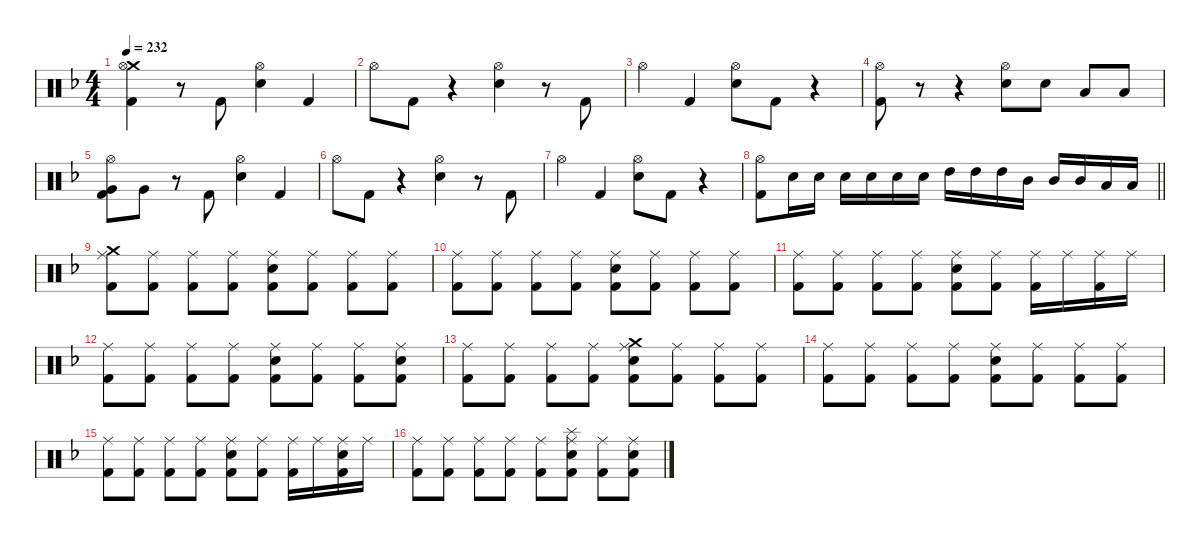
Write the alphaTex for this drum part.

\hideDynamics
\bracketExtendMode nobrackets
\singleTrackTrackNamePolicy hidden
\multiTrackTrackNamePolicy hidden
\firstSystemTrackNameMode fullname
\firstSystemTrackNameOrientation horizontal
\otherSystemsTrackNameOrientation horizontal
\track ("Drumkit" "Drums") {defaultSystemsLayout 4 instrument percussion}
\staff {score}
\articulation defaults
\ts (4 4)
\tempo 232
\clef neutral
\ks dminor
("Crash medium (hit)"{acc forcenatural} "Hi-Hat (open)"{acc forcenatural} "Kick (hit) 2"{acc forcenatural}).4{dy f beam Down} r.8{beam Down} "Kick (hit) 2"{acc forcenatural}.8{beam Up} ("Hi-Hat (open)"{acc forcenatural} "Snare (hit) 2"{acc forcenatural}).4{beam Down} "Kick (hit) 2"{acc forcenatural}.4{beam Up} |
"Hi-Hat (open)"{acc forcenatural}.8{beam Down} "Kick (hit) 2"{acc forcenatural}.8{beam Down} r.4{beam Down} ("Hi-Hat (open)"{acc forcenatural} "Snare (hit) 2"{acc forcenatural}).4{beam Down} r.8{beam Down} "Kick (hit) 2"{acc forcenatural}.8{beam Up} |
"Hi-Hat (open)"{acc forcenatural}.4{beam Down} "Kick (hit) 2"{acc forcenatural}.4{beam Up} ("Hi-Hat (open)"{acc forcenatural} "Snare (hit) 2"{acc forcenatural}).8{beam Down} "Kick (hit) 2"{acc forcenatural}.8{beam Down} r.4{beam Down} |
("Hi-Hat (open)"{acc forcenatural} "Kick (hit) 2"{acc forcenatural}).8{beam Down} r.8{beam Down} r.4{beam Down} ("Hi-Hat (open)"{acc forcenatural} "Snare (hit) 2"{acc forcenatural}).8{beam Down} "Snare (hit) 2"{acc forcenatural}.8{dy mf beam Down} "Low Tom (hit)"{acc forcenatural}.8{beam Up} "Low Tom (hit)"{acc forcenatural}.8{beam Up} |
("Hi-Hat (open)"{acc forcenatural} "Very Low Tom (hit)"{acc forcenatural} "Kick (hit) 2"{acc forcenatural}).8{dy f beam Down} "Very Low Tom (hit)"{acc forcenatural}.8{dy mf beam Down} r.8{beam Down} "Kick (hit) 2"{acc forcenatural}.8{dy f beam Up} ("Hi-Hat (open)"{acc forcenatural} "Snare (hit) 2"{acc forcenatural}).4{beam Down} "Kick (hit) 2"{acc forcenatural}.4{beam Up} |
"Hi-Hat (open)"{acc forcenatural}.8{beam Down} "Kick (hit) 2"{acc forcenatural}.8{beam Down} r.4{beam Down} ("Hi-Hat (open)"{acc forcenatural} "Snare (hit) 2"{acc forcenatural}).4{beam Down} r.8{beam Down} "Kick (hit) 2"{acc forcenatural}.8{beam Up} |
"Hi-Hat (open)"{acc forcenatural}.4{beam Down} "Kick (hit) 2"{acc forcenatural}.4{beam Up} ("Hi-Hat (open)"{acc forcenatural} "Snare (hit) 2"{acc forcenatural}).8{beam Down} "Kick (hit) 2"{acc forcenatural}.8{beam Down} r.4{beam Down} |
\barLineRight lightlight
("Hi-Hat (open)"{acc forcenatural} "Kick (hit) 2"{acc forcenatural}).8{beam Down} "Snare (hit) 2"{acc forcenatural}.16{beam Down} "Snare (hit) 2"{acc forcenatural}.16{beam Down} "Snare (hit) 2"{acc forcenatural}.16{beam Down} "Snare (hit) 2"{acc forcenatural}.16{beam Down} "Snare (hit) 2"{acc forcenatural}.16{beam Down} "Snare (hit) 2"{acc forcenatural}.16{beam Down} "High Tom (hit)"{acc forcenatural}.16{beam Down} "High Tom (hit)"{acc forcenatural}.16{beam Down} "High Tom (hit)"{acc forcenatural}.16{beam Down} "Mid Tom (hit)"{acc forcenatural}.16{beam Down} "Mid Tom (hit)"{acc forcenatural}.16{beam Up} "Mid Tom (hit)"{acc forcenatural}.16{beam Up} "Low Tom (hit)"{acc forcenatural}.16{beam Up} "Low Tom (hit)"{acc forcenatural}.16{beam Up} |
("Crash medium (hit)"{acc forcenatural} "Ride (middle)"{acc forcenatural} "Kick (hit) 2"{acc forcenatural}).8{beam Down} ("Ride (middle)"{acc forcenatural} "Kick (hit) 2"{acc forcenatural}).8{dy mp beam Down} ("Ride (middle)"{acc forcenatural} "Kick (hit) 2"{acc forcenatural}).8{dy f beam Down} ("Ride (middle)"{acc forcenatural} "Kick (hit) 2"{acc forcenatural}).8{dy mp beam Down} ("Ride (middle)"{acc forcenatural} "Snare (hit) 2"{acc forcenatural} "Kick (hit) 2"{acc forcenatural}).8{dy f beam Down} ("Ride (middle)"{acc forcenatural} "Kick (hit) 2"{acc forcenatural}).8{dy mp beam Down} ("Ride (middle)"{acc forcenatural} "Kick (hit) 2"{acc forcenatural}).8{dy f beam Down} ("Ride (middle)"{acc forcenatural} "Kick (hit) 2"{acc forcenatural}).8{dy mp beam Down} |
("Ride (middle)"{acc forcenatural} "Kick (hit) 2"{acc forcenatural}).8{dy f beam Down} ("Ride (middle)"{acc forcenatural} "Kick (hit) 2"{acc forcenatural}).8{dy mp beam Down} ("Ride (middle)"{acc forcenatural} "Kick (hit) 2"{acc forcenatural}).8{dy f beam Down} ("Ride (middle)"{acc forcenatural} "Kick (hit) 2"{acc forcenatural}).8{dy mp beam Down} ("Ride (middle)"{acc forcenatural} "Snare (hit) 2"{acc forcenatural} "Kick (hit) 2"{acc forcenatural}).8{dy f beam Down} ("Ride (middle)"{acc forcenatural} "Kick (hit) 2"{acc forcenatural}).8{dy mp beam Down} ("Ride (middle)"{acc forcenatural} "Kick (hit) 2"{acc forcenatural}).8{dy f beam Down} ("Ride (middle)"{acc forcenatural} "Kick (hit) 2"{acc forcenatural}).8{dy mp beam Down} |
("Ride (middle)"{acc forcenatural} "Kick (hit) 2"{acc forcenatural}).8{dy f beam Down} ("Ride (middle)"{acc forcenatural} "Kick (hit) 2"{acc forcenatural}).8{dy mp beam Down} ("Ride (middle)"{acc forcenatural} "Kick (hit) 2"{acc forcenatural}).8{dy f beam Down} ("Ride (middle)"{acc forcenatural} "Kick (hit) 2"{acc forcenatural}).8{dy mp beam Down} ("Ride (middle)"{acc forcenatural} "Snare (hit) 2"{acc forcenatural} "Kick (hit) 2"{acc forcenatural}).8{dy f beam Down} ("Ride (middle)"{acc forcenatural} "Kick (hit) 2"{acc forcenatural}).8{dy mp beam Down} ("Ride (middle)"{acc forcenatural} "Kick (hit) 2"{acc forcenatural}).16{dy f beam Down} "Ride (middle)"{acc forcenatural}.16{dy mf beam Down} ("Ride (middle)"{acc forcenatural} "Kick (hit) 2"{acc forcenatural}).16{dy mp beam Down} "Ride (middle)"{acc forcenatural}.16{dy mf beam Down} |
("Ride (middle)"{acc forcenatural} "Kick (hit) 2"{acc forcenatural}).8{dy f beam Down} ("Ride (middle)"{acc forcenatural} "Kick (hit) 2"{acc forcenatural}).8{dy mp beam Down} ("Ride (middle)"{acc forcenatural} "Kick (hit) 2"{acc forcenatural}).8{dy f beam Down} ("Ride (middle)"{acc forcenatural} "Kick (hit) 2"{acc forcenatural}).8{dy mp beam Down} ("Ride (middle)"{acc forcenatural} "Snare (hit) 2"{acc forcenatural} "Kick (hit) 2"{acc forcenatural}).8{dy f beam Down} ("Ride (middle)"{acc forcenatural} "Kick (hit) 2"{acc forcenatural}).8{dy mp beam Down} ("Ride (middle)"{acc forcenatural} "Kick (hit) 2"{acc forcenatural}).8{dy f beam Down} ("Ride (middle)"{acc forcenatural} "Snare (hit) 2"{acc forcenatural} "Kick (hit) 2"{acc forcenatural}).8{dy mp beam Down} |
("Ride (middle)"{acc forcenatural} "Kick (hit) 2"{acc forcenatural}).8{dy f beam Down} ("Ride (middle)"{acc forcenatural} "Kick (hit) 2"{acc forcenatural}).8{dy mp beam Down} ("Ride (middle)"{acc forcenatural} "Kick (hit) 2"{acc forcenatural}).8{dy f beam Down} ("Ride (middle)"{acc forcenatural} "Kick (hit) 2"{acc forcenatural}).8{dy mp beam Down} ("Crash medium (hit)"{acc forcenatural} "Ride (middle)"{acc forcenatural} "Snare (hit) 2"{acc forcenatural} "Kick (hit) 2"{acc forcenatural}).8{dy f beam Down} ("Ride (middle)"{acc forcenatural} "Kick (hit) 2"{acc forcenatural}).8{dy mp beam Down} ("Ride (middle)"{acc forcenatural} "Kick (hit) 2"{acc forcenatural}).8{dy f beam Down} ("Ride (middle)"{acc forcenatural} "Kick (hit) 2"{acc forcenatural}).8{dy mp beam Down} |
("Ride (middle)"{acc forcenatural} "Kick (hit) 2"{acc forcenatural}).8{dy f beam Down} ("Ride (middle)"{acc forcenatural} "Kick (hit) 2"{acc forcenatural}).8{dy mp beam Down} ("Ride (middle)"{acc forcenatural} "Kick (hit) 2"{acc forcenatural}).8{dy f beam Down} ("Ride (middle)"{acc forcenatural} "Kick (hit) 2"{acc forcenatural}).8{dy mp beam Down} ("Ride (middle)"{acc forcenatural} "Snare (hit) 2"{acc forcenatural} "Kick (hit) 2"{acc forcenatural}).8{dy f beam Down} ("Ride (middle)"{acc forcenatural} "Kick (hit) 2"{acc forcenatural}).8{dy mp beam Down} ("Ride (middle)"{acc forcenatural} "Kick (hit) 2"{acc forcenatural}).8{dy f beam Down} ("Ride (middle)"{acc forcenatural} "Kick (hit) 2"{acc forcenatural}).8{dy mp beam Down} |
("Ride (middle)"{acc forcenatural} "Kick (hit) 2"{acc forcenatural}).8{dy f beam Down} ("Ride (middle)"{acc forcenatural} "Kick (hit) 2"{acc forcenatural}).8{dy mp beam Down} ("Ride (middle)"{acc forcenatural} "Kick (hit) 2"{acc forcenatural}).8{dy f beam Down} ("Ride (middle)"{acc forcenatural} "Kick (hit) 2"{acc forcenatural}).8{dy mp beam Down} ("Ride (middle)"{acc forcenatural} "Snare (hit) 2"{acc forcenatural} "Kick (hit) 2"{acc forcenatural}).8{dy f beam Down} ("Ride (middle)"{acc forcenatural} "Kick (hit) 2"{acc forcenatural}).8{dy mp beam Down} ("Ride (middle)"{acc forcenatural} "Kick (hit) 2"{acc forcenatural}).16{dy f beam Down} "Ride (middle)"{acc forcenatural}.16{dy mf beam Down} ("Ride (middle)"{acc forcenatural} "Snare (hit) 2"{acc forcenatural} "Kick (hit) 2"{acc forcenatural}).16{dy mp beam Down} "Ride (middle)"{acc forcenatural}.16{dy mf beam Down} |
("Ride (middle)"{acc forcenatural} "Kick (hit) 2"{acc forcenatural}).8{dy f beam Down} ("Ride (middle)"{acc forcenatural} "Kick (hit) 2"{acc forcenatural}).8{dy mp beam Down} ("Ride (middle)"{acc forcenatural} "Kick (hit) 2"{acc forcenatural}).8{dy f beam Down} ("Ride (middle)"{acc forcenatural} "Kick (hit) 2"{acc forcenatural}).8{dy mp beam Down} ("Ride (middle)"{acc forcenatural} "Kick (hit) 2"{acc forcenatural}).8{dy f beam Down} ("Splash (hit)"{acc forcenatural} "Ride (middle)"{acc forcenatural} "Snare (hit) 2"{acc forcenatural} "Kick (hit) 2"{acc forcenatural}).8{beam Down} ("Ride (middle)"{acc forcenatural} "Kick (hit) 2"{acc forcenatural}).8{beam Down} ("Ride (middle)"{acc forcenatural} "Snare (hit) 2"{acc forcenatural} "Kick (hit) 2"{acc forcenatural}).8{dy mp beam Down}
